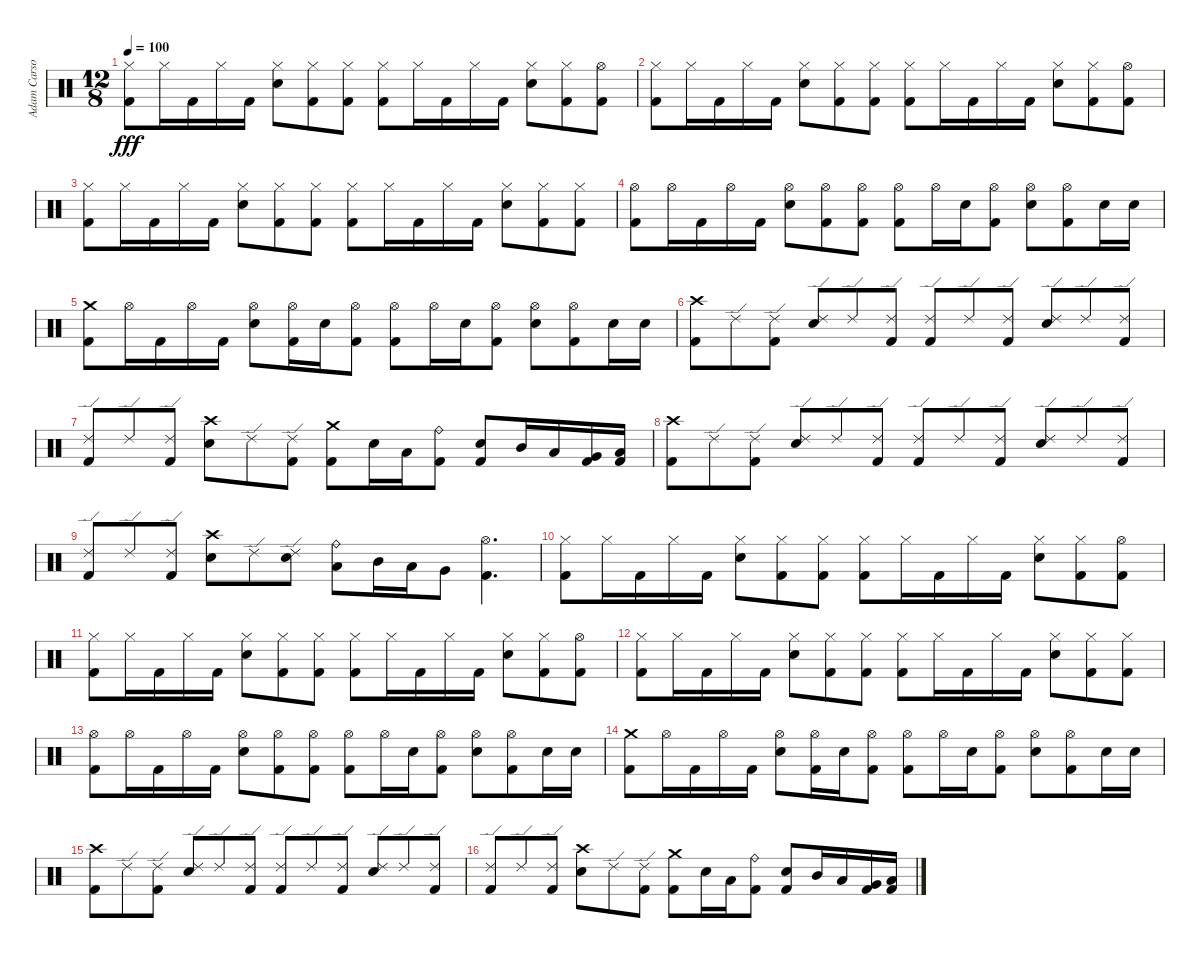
\track ("Adam Carson" "Adam Carso") {instrument percussion}
\staff {score}
\articulation defaults
\ts (12 8)
\tempo 100
\clef neutral
\ks aminor
("Hi-Hat (closed)" "Kick (hit) 2").8{dy fff} "Hi-Hat (closed)".16 "Kick (hit) 2".16 "Hi-Hat (closed)".16 "Kick (hit) 2".16 ("Hi-Hat (closed)" "Electric Snare (hit)").8 ("Hi-Hat (closed)" "Kick (hit) 2").8 ("Hi-Hat (closed)" "Kick (hit) 2").8 ("Hi-Hat (closed)" "Kick (hit) 2").8 "Hi-Hat (closed)".16 "Kick (hit) 2".16 "Hi-Hat (closed)".16 "Kick (hit) 2".16 ("Hi-Hat (closed)" "Electric Snare (hit)").8 ("Hi-Hat (closed)" "Kick (hit) 2").8 ("Hi-Hat (open)" "Kick (hit) 2").8 |
("Hi-Hat (closed)" "Kick (hit) 2").8 "Hi-Hat (closed)".16 "Kick (hit) 2".16 "Hi-Hat (closed)".16 "Kick (hit) 2".16 ("Hi-Hat (closed)" "Electric Snare (hit)").8 ("Hi-Hat (closed)" "Kick (hit) 2").8 ("Hi-Hat (closed)" "Kick (hit) 2").8 ("Hi-Hat (closed)" "Kick (hit) 2").8 "Hi-Hat (closed)".16 "Kick (hit) 2".16 "Hi-Hat (closed)".16 "Kick (hit) 2".16 ("Hi-Hat (closed)" "Electric Snare (hit)").8 ("Hi-Hat (closed)" "Kick (hit) 2").8 ("Hi-Hat (open)" "Kick (hit) 2").8 |
("Hi-Hat (closed)" "Kick (hit) 2").8 "Hi-Hat (closed)".16 "Kick (hit) 2".16 "Hi-Hat (closed)".16 "Kick (hit) 2".16 ("Hi-Hat (closed)" "Electric Snare (hit)").8 ("Hi-Hat (closed)" "Kick (hit) 2").8 ("Hi-Hat (closed)" "Kick (hit) 2").8 ("Hi-Hat (closed)" "Kick (hit) 2").8 "Hi-Hat (closed)".16 "Kick (hit) 2".16 "Hi-Hat (closed)".16 "Kick (hit) 2".16 ("Hi-Hat (closed)" "Electric Snare (hit)").8 ("Hi-Hat (closed)" "Kick (hit) 2").8 ("Hi-Hat (closed)" "Kick (hit) 2").8 |
("Hi-Hat (open)" "Kick (hit) 2").8 "Hi-Hat (open)".16 "Kick (hit) 2".16 "Hi-Hat (open)".16 "Kick (hit) 2".16 ("Hi-Hat (open)" "Electric Snare (hit)").8 ("Hi-Hat (open)" "Kick (hit) 2").8 ("Hi-Hat (open)" "Kick (hit) 2").8 ("Hi-Hat (open)" "Kick (hit) 2").8 "Hi-Hat (open)".16 "Electric Snare (hit)".16 ("Hi-Hat (open)" "Kick (hit) 2").8 ("Hi-Hat (open)" "Electric Snare (hit)").8 ("Hi-Hat (open)" "Kick (hit) 2").8 "Electric Snare (hit)".16 "Electric Snare (hit)".16 |
("Crash medium (hit)" "Kick (hit) 2").8 "Hi-Hat (open)".16 "Kick (hit) 2".16 "Hi-Hat (open)".16 "Kick (hit) 2".16 ("Hi-Hat (open)" "Electric Snare (hit)").8 ("Hi-Hat (open)" "Kick (hit) 2").16 "Electric Snare (hit)".16 ("Hi-Hat (open)" "Kick (hit) 2").8 ("Hi-Hat (open)" "Kick (hit) 2").8 "Hi-Hat (open)".16 "Electric Snare (hit)".16 ("Hi-Hat (open)" "Kick (hit) 2").8 ("Hi-Hat (open)" "Electric Snare (hit)").8 ("Hi-Hat (open)" "Kick (hit) 2").8 "Electric Snare (hit)".16 "Electric Snare (hit)".16 |
("Crash high (hit)" "Kick (hit) 2").8 "Ride (edge) 2".8 ("Ride (edge) 2" "Kick (hit) 2").8 ("Ride (edge) 2" "Electric Snare (hit)").8 "Ride (edge) 2".8 ("Ride (edge) 2" "Kick (hit) 2").8 ("Ride (edge) 2" "Kick (hit) 2").8 "Ride (edge) 2".8 ("Ride (edge) 2" "Kick (hit) 2").8 ("Ride (edge) 2" "Electric Snare (hit)").8 "Ride (edge) 2".8 ("Ride (edge) 2" "Kick (hit) 2").8 |
("Ride (edge) 2" "Kick (hit) 2").8 "Ride (edge) 2".8 ("Ride (edge) 2" "Kick (hit) 2").8 ("Crash high (hit)" "Electric Snare (hit)").8 "Ride (edge) 2".8 ("Ride (edge) 2" "Kick (hit) 2").8 ("Crash medium (hit)" "Kick (hit) 2").8 "Electric Snare (hit)".16 "Low Tom (hit)".16 ("Ride (bell)" "Kick (hit) 2").8 ("Electric Snare (hit)" "Kick (hit) 2").8 "Mid Tom (hit)".16 "Low Tom (hit)".16 ("Very Low Tom (hit)" "Kick (hit) 2").16 ("Low Floor Tom (hit)" "Kick (hit) 2").16 |
("Crash high (hit)" "Kick (hit) 2").8 "Ride (edge) 2".8 ("Ride (edge) 2" "Kick (hit) 2").8 ("Ride (edge) 2" "Electric Snare (hit)").8 "Ride (edge) 2".8 ("Ride (edge) 2" "Kick (hit) 2").8 ("Ride (edge) 2" "Kick (hit) 2").8 "Ride (edge) 2".8 ("Ride (edge) 2" "Kick (hit) 2").8 ("Ride (edge) 2" "Electric Snare (hit)").8 "Ride (edge) 2".8 ("Ride (edge) 2" "Kick (hit) 2").8 |
("Ride (edge) 2" "Kick (hit) 2").8 "Ride (edge) 2".8 ("Ride (edge) 2" "Kick (hit) 2").8 ("Crash high (hit)" "Electric Snare (hit)").8 "Ride (edge) 2".8 ("Ride (edge) 2" "Electric Snare (hit)").8 ("Ride (bell)" "Low Tom (hit)").8 "Mid Tom (hit)".16 "Low Tom (hit)".16 "Very Low Tom (hit)".8 ("Hi-Hat (open)" "Kick (hit) 2").4{d} |
("Hi-Hat (closed)" "Kick (hit) 2").8 "Hi-Hat (closed)".16 "Kick (hit) 2".16 "Hi-Hat (closed)".16 "Kick (hit) 2".16 ("Hi-Hat (closed)" "Electric Snare (hit)").8 ("Hi-Hat (closed)" "Kick (hit) 2").8 ("Hi-Hat (closed)" "Kick (hit) 2").8 ("Hi-Hat (closed)" "Kick (hit) 2").8 "Hi-Hat (closed)".16 "Kick (hit) 2".16 "Hi-Hat (closed)".16 "Kick (hit) 2".16 ("Hi-Hat (closed)" "Electric Snare (hit)").8 ("Hi-Hat (closed)" "Kick (hit) 2").8 ("Hi-Hat (open)" "Kick (hit) 2").8 |
("Hi-Hat (closed)" "Kick (hit) 2").8 "Hi-Hat (closed)".16 "Kick (hit) 2".16 "Hi-Hat (closed)".16 "Kick (hit) 2".16 ("Hi-Hat (closed)" "Electric Snare (hit)").8 ("Hi-Hat (closed)" "Kick (hit) 2").8 ("Hi-Hat (closed)" "Kick (hit) 2").8 ("Hi-Hat (closed)" "Kick (hit) 2").8 "Hi-Hat (closed)".16 "Kick (hit) 2".16 "Hi-Hat (closed)".16 "Kick (hit) 2".16 ("Hi-Hat (closed)" "Electric Snare (hit)").8 ("Hi-Hat (closed)" "Kick (hit) 2").8 ("Hi-Hat (open)" "Kick (hit) 2").8 |
("Hi-Hat (closed)" "Kick (hit) 2").8 "Hi-Hat (closed)".16 "Kick (hit) 2".16 "Hi-Hat (closed)".16 "Kick (hit) 2".16 ("Hi-Hat (closed)" "Electric Snare (hit)").8 ("Hi-Hat (closed)" "Kick (hit) 2").8 ("Hi-Hat (closed)" "Kick (hit) 2").8 ("Hi-Hat (closed)" "Kick (hit) 2").8 "Hi-Hat (closed)".16 "Kick (hit) 2".16 "Hi-Hat (closed)".16 "Kick (hit) 2".16 ("Hi-Hat (closed)" "Electric Snare (hit)").8 ("Hi-Hat (closed)" "Kick (hit) 2").8 ("Hi-Hat (closed)" "Kick (hit) 2").8 |
("Hi-Hat (open)" "Kick (hit) 2").8 "Hi-Hat (open)".16 "Kick (hit) 2".16 "Hi-Hat (open)".16 "Kick (hit) 2".16 ("Hi-Hat (open)" "Electric Snare (hit)").8 ("Hi-Hat (open)" "Kick (hit) 2").8 ("Hi-Hat (open)" "Kick (hit) 2").8 ("Hi-Hat (open)" "Kick (hit) 2").8 "Hi-Hat (open)".16 "Electric Snare (hit)".16 ("Hi-Hat (open)" "Kick (hit) 2").8 ("Hi-Hat (open)" "Electric Snare (hit)").8 ("Hi-Hat (open)" "Kick (hit) 2").8 "Electric Snare (hit)".16 "Electric Snare (hit)".16 |
("Crash medium (hit)" "Kick (hit) 2").8 "Hi-Hat (open)".16 "Kick (hit) 2".16 "Hi-Hat (open)".16 "Kick (hit) 2".16 ("Hi-Hat (open)" "Electric Snare (hit)").8 ("Hi-Hat (open)" "Kick (hit) 2").16 "Electric Snare (hit)".16 ("Hi-Hat (open)" "Kick (hit) 2").8 ("Hi-Hat (open)" "Kick (hit) 2").8 "Hi-Hat (open)".16 "Electric Snare (hit)".16 ("Hi-Hat (open)" "Kick (hit) 2").8 ("Hi-Hat (open)" "Electric Snare (hit)").8 ("Hi-Hat (open)" "Kick (hit) 2").8 "Electric Snare (hit)".16 "Electric Snare (hit)".16 |
("Crash high (hit)" "Kick (hit) 2").8 "Ride (edge) 2".8 ("Ride (edge) 2" "Kick (hit) 2").8 ("Ride (edge) 2" "Electric Snare (hit)").8 "Ride (edge) 2".8 ("Ride (edge) 2" "Kick (hit) 2").8 ("Ride (edge) 2" "Kick (hit) 2").8 "Ride (edge) 2".8 ("Ride (edge) 2" "Kick (hit) 2").8 ("Ride (edge) 2" "Electric Snare (hit)").8 "Ride (edge) 2".8 ("Ride (edge) 2" "Kick (hit) 2").8 |
("Ride (edge) 2" "Kick (hit) 2").8 "Ride (edge) 2".8 ("Ride (edge) 2" "Kick (hit) 2").8 ("Crash high (hit)" "Electric Snare (hit)").8 "Ride (edge) 2".8 ("Ride (edge) 2" "Kick (hit) 2").8 ("Crash medium (hit)" "Kick (hit) 2").8 "Electric Snare (hit)".16 "Low Tom (hit)".16 ("Ride (bell)" "Kick (hit) 2").8 ("Electric Snare (hit)" "Kick (hit) 2").8 "Mid Tom (hit)".16 "Low Tom (hit)".16 ("Very Low Tom (hit)" "Kick (hit) 2").16 ("Low Floor Tom (hit)" "Kick (hit) 2").16
